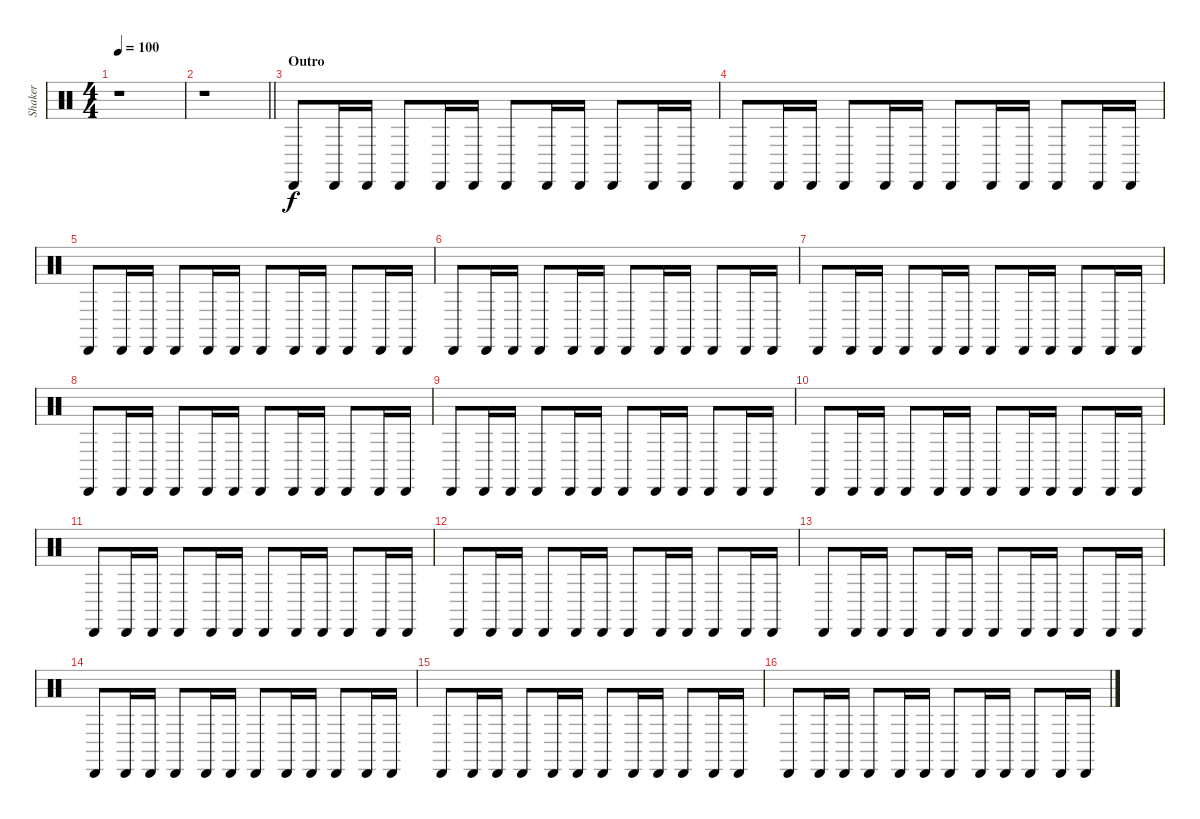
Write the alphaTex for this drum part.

\track ("Shaker" "Shaker") {instrument percussion}
\staff {score}
\articulation defaults
\ts (4 4)
\tempo 100
\clef neutral
\ks c
r.1{dy f} |
\barLineRight lightlight
r.1 |
\section ("" "Outro")
"Cabasa (hit)".8 "Cabasa (hit)".16 "Cabasa (hit)".16 "Cabasa (hit)".8 "Cabasa (hit)".16 "Cabasa (hit)".16 "Cabasa (hit)".8 "Cabasa (hit)".16 "Cabasa (hit)".16 "Cabasa (hit)".8 "Cabasa (hit)".16 "Cabasa (hit)".16 |
"Cabasa (hit)".8 "Cabasa (hit)".16 "Cabasa (hit)".16 "Cabasa (hit)".8 "Cabasa (hit)".16 "Cabasa (hit)".16 "Cabasa (hit)".8 "Cabasa (hit)".16 "Cabasa (hit)".16 "Cabasa (hit)".8 "Cabasa (hit)".16 "Cabasa (hit)".16 |
"Cabasa (hit)".8 "Cabasa (hit)".16 "Cabasa (hit)".16 "Cabasa (hit)".8 "Cabasa (hit)".16 "Cabasa (hit)".16 "Cabasa (hit)".8 "Cabasa (hit)".16 "Cabasa (hit)".16 "Cabasa (hit)".8 "Cabasa (hit)".16 "Cabasa (hit)".16 |
"Cabasa (hit)".8 "Cabasa (hit)".16 "Cabasa (hit)".16 "Cabasa (hit)".8 "Cabasa (hit)".16 "Cabasa (hit)".16 "Cabasa (hit)".8 "Cabasa (hit)".16 "Cabasa (hit)".16 "Cabasa (hit)".8 "Cabasa (hit)".16 "Cabasa (hit)".16 |
"Cabasa (hit)".8 "Cabasa (hit)".16 "Cabasa (hit)".16 "Cabasa (hit)".8 "Cabasa (hit)".16 "Cabasa (hit)".16 "Cabasa (hit)".8 "Cabasa (hit)".16 "Cabasa (hit)".16 "Cabasa (hit)".8 "Cabasa (hit)".16 "Cabasa (hit)".16 |
"Cabasa (hit)".8 "Cabasa (hit)".16 "Cabasa (hit)".16 "Cabasa (hit)".8 "Cabasa (hit)".16 "Cabasa (hit)".16 "Cabasa (hit)".8 "Cabasa (hit)".16 "Cabasa (hit)".16 "Cabasa (hit)".8 "Cabasa (hit)".16 "Cabasa (hit)".16 |
"Cabasa (hit)".8 "Cabasa (hit)".16 "Cabasa (hit)".16 "Cabasa (hit)".8 "Cabasa (hit)".16 "Cabasa (hit)".16 "Cabasa (hit)".8 "Cabasa (hit)".16 "Cabasa (hit)".16 "Cabasa (hit)".8 "Cabasa (hit)".16 "Cabasa (hit)".16 |
"Cabasa (hit)".8 "Cabasa (hit)".16 "Cabasa (hit)".16 "Cabasa (hit)".8 "Cabasa (hit)".16 "Cabasa (hit)".16 "Cabasa (hit)".8 "Cabasa (hit)".16 "Cabasa (hit)".16 "Cabasa (hit)".8 "Cabasa (hit)".16 "Cabasa (hit)".16 |
"Cabasa (hit)".8 "Cabasa (hit)".16 "Cabasa (hit)".16 "Cabasa (hit)".8 "Cabasa (hit)".16 "Cabasa (hit)".16 "Cabasa (hit)".8 "Cabasa (hit)".16 "Cabasa (hit)".16 "Cabasa (hit)".8 "Cabasa (hit)".16 "Cabasa (hit)".16 |
"Cabasa (hit)".8 "Cabasa (hit)".16 "Cabasa (hit)".16 "Cabasa (hit)".8 "Cabasa (hit)".16 "Cabasa (hit)".16 "Cabasa (hit)".8 "Cabasa (hit)".16 "Cabasa (hit)".16 "Cabasa (hit)".8 "Cabasa (hit)".16 "Cabasa (hit)".16 |
"Cabasa (hit)".8 "Cabasa (hit)".16 "Cabasa (hit)".16 "Cabasa (hit)".8 "Cabasa (hit)".16 "Cabasa (hit)".16 "Cabasa (hit)".8 "Cabasa (hit)".16 "Cabasa (hit)".16 "Cabasa (hit)".8 "Cabasa (hit)".16 "Cabasa (hit)".16 |
"Cabasa (hit)".8 "Cabasa (hit)".16 "Cabasa (hit)".16 "Cabasa (hit)".8 "Cabasa (hit)".16 "Cabasa (hit)".16 "Cabasa (hit)".8 "Cabasa (hit)".16 "Cabasa (hit)".16 "Cabasa (hit)".8 "Cabasa (hit)".16 "Cabasa (hit)".16 |
"Cabasa (hit)".8 "Cabasa (hit)".16 "Cabasa (hit)".16 "Cabasa (hit)".8 "Cabasa (hit)".16 "Cabasa (hit)".16 "Cabasa (hit)".8 "Cabasa (hit)".16 "Cabasa (hit)".16 "Cabasa (hit)".8 "Cabasa (hit)".16 "Cabasa (hit)".16 |
"Cabasa (hit)".8 "Cabasa (hit)".16 "Cabasa (hit)".16 "Cabasa (hit)".8 "Cabasa (hit)".16 "Cabasa (hit)".16 "Cabasa (hit)".8 "Cabasa (hit)".16 "Cabasa (hit)".16 "Cabasa (hit)".8 "Cabasa (hit)".16 "Cabasa (hit)".16
